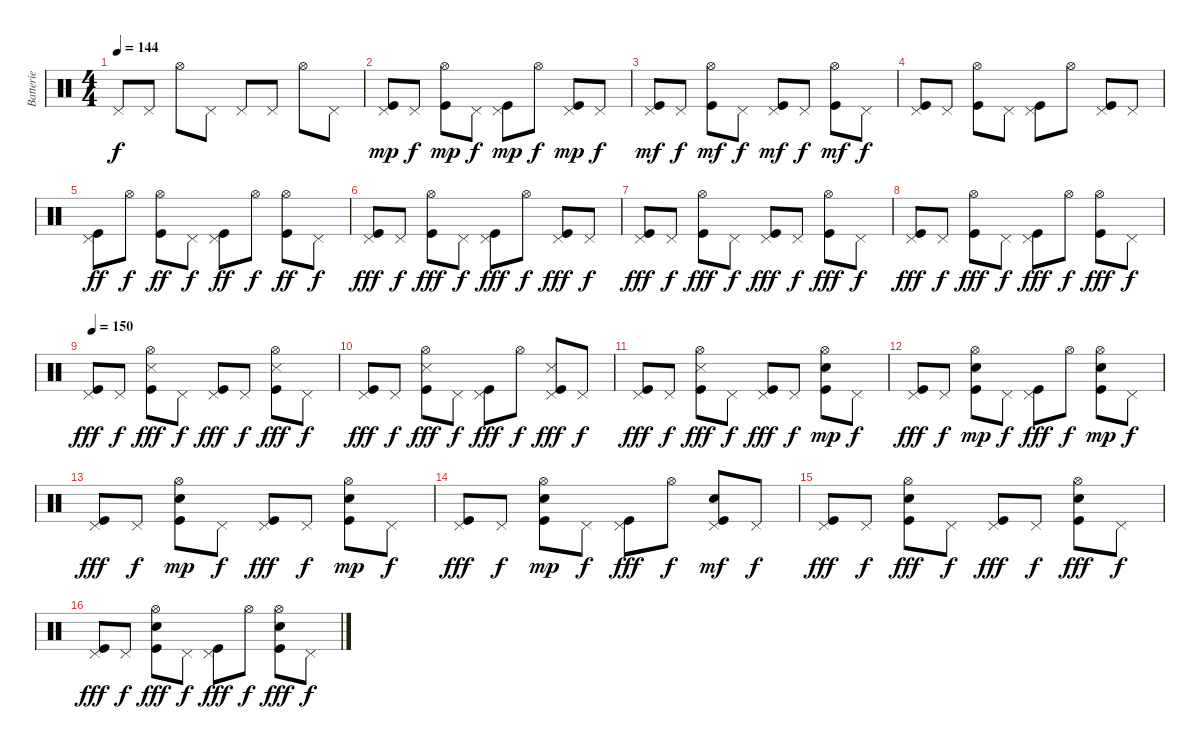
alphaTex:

\track ("Batterie" "Batterie") {instrument percussion}
\staff {score}
\articulation defaults
\ts (4 4)
\tempo 144
\clef neutral
\ks c "Pedal Hi-Hat (hit)".8{dy f} "Pedal Hi-Hat (hit)".8 "Hi-Hat (open)".8 "Pedal Hi-Hat (hit)".8 "Pedal Hi-Hat (hit)".8 "Pedal Hi-Hat (hit)".8 "Hi-Hat (open)".8 "Pedal Hi-Hat (hit)".8
|
("Pedal Hi-Hat (hit)" "Kick (hit)").8{dy mp} "Pedal Hi-Hat (hit)".8{dy f} ("Hi-Hat (open)" "Kick (hit)").8{dy mp} "Pedal Hi-Hat (hit)".8{dy f} ("Pedal Hi-Hat (hit)" "Kick (hit)").8{dy mp} "Hi-Hat (open)".8{dy f} ("Pedal Hi-Hat (hit)" "Kick (hit)").8{dy mp} "Pedal Hi-Hat (hit)".8{dy f} |
("Pedal Hi-Hat (hit)" "Kick (hit)").8{dy mf} "Pedal Hi-Hat (hit)".8{dy f} ("Hi-Hat (open)" "Kick (hit)").8{dy mf} "Pedal Hi-Hat (hit)".8{dy f} ("Pedal Hi-Hat (hit)" "Kick (hit)").8{dy mf} "Pedal Hi-Hat (hit)".8{dy f} ("Hi-Hat (open)" "Kick (hit)").8{dy mf} "Pedal Hi-Hat (hit)".8{dy f} |
("Pedal Hi-Hat (hit)" "Kick (hit)").8 "Pedal Hi-Hat (hit)".8 ("Hi-Hat (open)" "Kick (hit)").8 "Pedal Hi-Hat (hit)".8 ("Pedal Hi-Hat (hit)" "Kick (hit)").8 "Hi-Hat (open)".8 ("Pedal Hi-Hat (hit)" "Kick (hit)").8 "Pedal Hi-Hat (hit)".8 |
("Pedal Hi-Hat (hit)" "Kick (hit)").8{dy ff} "Hi-Hat (open)".8{dy f} ("Hi-Hat (open)" "Kick (hit)").8{dy ff} "Pedal Hi-Hat (hit)".8{dy f} ("Pedal Hi-Hat (hit)" "Kick (hit)").8{dy ff} "Hi-Hat (open)".8{dy f} ("Hi-Hat (open)" "Kick (hit)").8{dy ff} "Pedal Hi-Hat (hit)".8{dy f} |
("Pedal Hi-Hat (hit)" "Kick (hit)").8{dy fff} "Pedal Hi-Hat (hit)".8{dy f} ("Hi-Hat (open)" "Kick (hit)").8{dy fff} "Pedal Hi-Hat (hit)".8{dy f} ("Pedal Hi-Hat (hit)" "Kick (hit)").8{dy fff} "Hi-Hat (open)".8{dy f} ("Pedal Hi-Hat (hit)" "Kick (hit)").8{dy fff} "Pedal Hi-Hat (hit)".8{dy f} |
("Pedal Hi-Hat (hit)" "Kick (hit)").8{dy fff} "Pedal Hi-Hat (hit)".8{dy f} ("Hi-Hat (open)" "Kick (hit)").8{dy fff} "Pedal Hi-Hat (hit)".8{dy f} ("Pedal Hi-Hat (hit)" "Kick (hit)").8{dy fff} "Pedal Hi-Hat (hit)".8{dy f} ("Hi-Hat (open)" "Kick (hit)").8{dy fff} "Pedal Hi-Hat (hit)".8{dy f} |
("Pedal Hi-Hat (hit)" "Kick (hit)").8{dy fff} "Pedal Hi-Hat (hit)".8{dy f} ("Hi-Hat (open)" "Kick (hit)").8{dy fff} "Pedal Hi-Hat (hit)".8{dy f} ("Pedal Hi-Hat (hit)" "Kick (hit)").8{dy fff} "Hi-Hat (open)".8{dy f} ("Hi-Hat (open)" "Kick (hit)").8{dy fff} "Pedal Hi-Hat (hit)".8{dy f} |
\tempo 150
("Pedal Hi-Hat (hit)" "Kick (hit)").8{dy fff} "Pedal Hi-Hat (hit)".8{dy f} ("Hi-Hat (open)" "Kick (hit)" "Snare (side stick) 3").8{dy fff} "Pedal Hi-Hat (hit)".8{dy f} ("Pedal Hi-Hat (hit)" "Kick (hit)").8{dy fff} "Pedal Hi-Hat (hit)".8{dy f} ("Hi-Hat (open)" "Kick (hit)" "Snare (side stick) 3").8{dy fff} "Pedal Hi-Hat (hit)".8{dy f} |
("Pedal Hi-Hat (hit)" "Kick (hit)").8{dy fff} "Pedal Hi-Hat (hit)".8{dy f} ("Hi-Hat (open)" "Kick (hit)" "Snare (side stick) 3").8{dy fff} "Pedal Hi-Hat (hit)".8{dy f} ("Pedal Hi-Hat (hit)" "Kick (hit)").8{dy fff} "Hi-Hat (open)".8{dy f} ("Pedal Hi-Hat (hit)" "Kick (hit)" "Snare (side stick) 3").8{dy fff} "Pedal Hi-Hat (hit)".8{dy f} |
("Pedal Hi-Hat (hit)" "Kick (hit)").8{dy fff} "Pedal Hi-Hat (hit)".8{dy f} ("Hi-Hat (open)" "Kick (hit)" "Snare (side stick) 3").8{dy fff} "Pedal Hi-Hat (hit)".8{dy f} ("Pedal Hi-Hat (hit)" "Kick (hit)").8{dy fff} "Pedal Hi-Hat (hit)".8{dy f} ("Hi-Hat (open)" "Kick (hit)" "Snare (hit) 2").8{dy mp} "Pedal Hi-Hat (hit)".8{dy f} |
("Pedal Hi-Hat (hit)" "Kick (hit)").8{dy fff} "Pedal Hi-Hat (hit)".8{dy f} ("Hi-Hat (open)" "Kick (hit)" "Snare (hit) 2").8{dy mp} "Pedal Hi-Hat (hit)".8{dy f} ("Pedal Hi-Hat (hit)" "Kick (hit)").8{dy fff} "Hi-Hat (open)".8{dy f} ("Hi-Hat (open)" "Kick (hit)" "Snare (hit) 2").8{dy mp} "Pedal Hi-Hat (hit)".8{dy f} |
("Pedal Hi-Hat (hit)" "Kick (hit)").8{dy fff} "Pedal Hi-Hat (hit)".8{dy f} ("Hi-Hat (open)" "Kick (hit)" "Snare (hit) 2").8{dy mp} "Pedal Hi-Hat (hit)".8{dy f} ("Pedal Hi-Hat (hit)" "Kick (hit)").8{dy fff} "Pedal Hi-Hat (hit)".8{dy f} ("Hi-Hat (open)" "Kick (hit)" "Snare (hit) 2").8{dy mp} "Pedal Hi-Hat (hit)".8{dy f} |
("Pedal Hi-Hat (hit)" "Kick (hit)").8{dy fff} "Pedal Hi-Hat (hit)".8{dy f} ("Hi-Hat (open)" "Kick (hit)" "Snare (hit) 2").8{dy mp} "Pedal Hi-Hat (hit)".8{dy f} ("Pedal Hi-Hat (hit)" "Kick (hit)").8{dy fff} "Hi-Hat (open)".8{dy f} ("Pedal Hi-Hat (hit)" "Kick (hit)" "Snare (hit) 2").8{dy mf} "Pedal Hi-Hat (hit)".8{dy f} |
("Pedal Hi-Hat (hit)" "Kick (hit)").8{dy fff} "Pedal Hi-Hat (hit)".8{dy f} ("Hi-Hat (open)" "Kick (hit)" "Electric Snare (hit)").8{dy fff} "Pedal Hi-Hat (hit)".8{dy f} ("Pedal Hi-Hat (hit)" "Kick (hit)").8{dy fff} "Pedal Hi-Hat (hit)".8{dy f} ("Hi-Hat (open)" "Kick (hit)" "Electric Snare (hit)").8{dy fff} "Pedal Hi-Hat (hit)".8{dy f} |
("Pedal Hi-Hat (hit)" "Kick (hit)").8{dy fff} "Pedal Hi-Hat (hit)".8{dy f} ("Hi-Hat (open)" "Kick (hit)" "Electric Snare (hit)").8{dy fff} "Pedal Hi-Hat (hit)".8{dy f} ("Pedal Hi-Hat (hit)" "Kick (hit)").8{dy fff} "Hi-Hat (open)".8{dy f} ("Hi-Hat (open)" "Kick (hit)" "Electric Snare (hit)").8{dy fff} "Pedal Hi-Hat (hit)".8{dy f}
